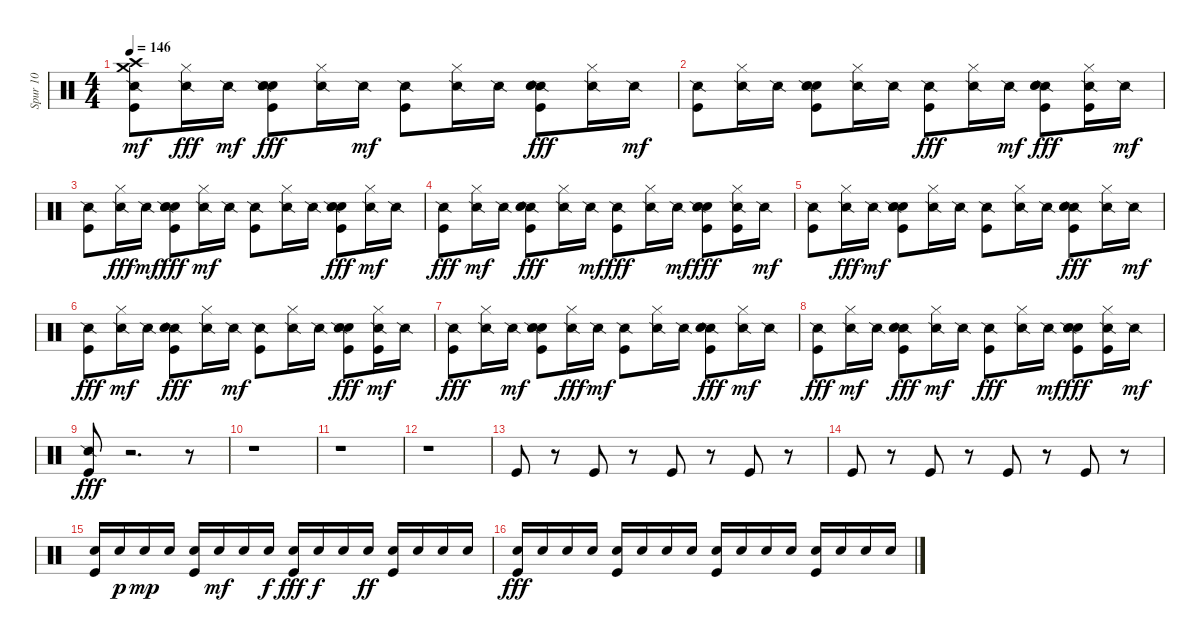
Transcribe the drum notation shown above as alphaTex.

\track ("Spur 10" "Spur 10") {instrument percussion}
\staff {score}
\articulation defaults
\ts (4 4)
\tempo 146
\clef neutral
\ks c
("Kick (hit)" "Crash medium (hit)" "Snare (side stick) 2" "Crash high (hit)").8{dy mf} ("Snare (side stick) 2" "Hi-Hat (closed)").16{dy fff} "Snare (side stick) 2".16{dy mf} ("Electric Snare (hit)" "Hand Clap (hit)" "Snare (side stick) 2" "Kick (hit)").8{dy fff} ("Snare (side stick) 2" "Hi-Hat (closed)").16 "Snare (side stick) 2".16{dy mf} ("Kick (hit)" "Snare (side stick) 2").8 ("Hi-Hat (closed)" "Snare (side stick) 2").16 "Snare (side stick) 2".16 ("Snare (side stick) 2" "Hand Clap (hit)" "Kick (hit)" "Electric Snare (hit)").8{dy fff} ("Snare (side stick) 2" "Hi-Hat (closed)").16 "Snare (side stick) 2".16{dy mf} |
("Kick (hit)" "Snare (side stick) 2").8 ("Hi-Hat (closed)" "Snare (side stick) 2").16 "Snare (side stick) 2".16 ("Hand Clap (hit)" "Electric Snare (hit)" "Kick (hit)" "Snare (side stick) 2").8 ("Hi-Hat (closed)" "Snare (side stick) 2").16 "Snare (side stick) 2".16 ("Snare (side stick) 2" "Kick (hit)").8{dy fff} ("Snare (side stick) 2" "Hi-Hat (closed)").16 "Snare (side stick) 2".16{dy mf} ("Snare (side stick) 2" "Hand Clap (hit)" "Electric Snare (hit)" "Kick (hit)").8{dy fff} ("Kick (hit)" "Snare (side stick) 2" "Hi-Hat (closed)").16 "Snare (side stick) 2".16{dy mf} |
("Kick (hit)" "Snare (side stick) 2").8 ("Snare (side stick) 2" "Hi-Hat (closed)").16{dy fff} "Snare (side stick) 2".16{dy mf} ("Electric Snare (hit)" "Snare (side stick) 2" "Kick (hit)" "Hand Clap (hit)").8{dy fff} ("Hi-Hat (closed)" "Snare (side stick) 2").16{dy mf} "Snare (side stick) 2".16 ("Kick (hit)" "Snare (side stick) 2").8 ("Hi-Hat (closed)" "Snare (side stick) 2").16 "Snare (side stick) 2".16 ("Electric Snare (hit)" "Snare (side stick) 2" "Kick (hit)" "Hand Clap (hit)").8{dy fff} ("Hi-Hat (closed)" "Snare (side stick) 2").16{dy mf} "Snare (side stick) 2".16 |
("Snare (side stick) 2" "Kick (hit)").8{dy fff} ("Hi-Hat (closed)" "Snare (side stick) 2").16{dy mf} "Snare (side stick) 2".16 ("Snare (side stick) 2" "Hand Clap (hit)" "Electric Snare (hit)" "Kick (hit)").8{dy fff} ("Snare (side stick) 2" "Hi-Hat (closed)").16 "Snare (side stick) 2".16{dy mf} ("Snare (side stick) 2" "Kick (hit)").8{dy fff} ("Snare (side stick) 2" "Hi-Hat (closed)").16 "Snare (side stick) 2".16{dy mf} ("Hand Clap (hit)" "Electric Snare (hit)" "Snare (side stick) 2" "Kick (hit)").8{dy fff} ("Snare (side stick) 2" "Kick (hit)" "Hi-Hat (closed)").16 "Snare (side stick) 2".16{dy mf} |
("Kick (hit)" "Snare (side stick) 2").8 ("Snare (side stick) 2" "Hi-Hat (closed)").16{dy fff} "Snare (side stick) 2".16{dy mf} ("Hand Clap (hit)" "Electric Snare (hit)" "Kick (hit)" "Snare (side stick) 2").8 ("Hi-Hat (closed)" "Snare (side stick) 2").16 "Snare (side stick) 2".16 ("Kick (hit)" "Snare (side stick) 2").8 ("Hi-Hat (closed)" "Snare (side stick) 2").16 "Snare (side stick) 2".16 ("Snare (side stick) 2" "Hand Clap (hit)" "Kick (hit)" "Electric Snare (hit)").8{dy fff} ("Snare (side stick) 2" "Hi-Hat (closed)").16 "Snare (side stick) 2".16{dy mf} |
("Snare (side stick) 2" "Kick (hit)").8{dy fff} ("Hi-Hat (closed)" "Snare (side stick) 2").16{dy mf} "Snare (side stick) 2".16 ("Snare (side stick) 2" "Electric Snare (hit)" "Hand Clap (hit)" "Kick (hit)").8{dy fff} ("Snare (side stick) 2" "Hi-Hat (closed)").16 "Snare (side stick) 2".16{dy mf} ("Kick (hit)" "Snare (side stick) 2").8 ("Hi-Hat (closed)" "Snare (side stick) 2").16 "Snare (side stick) 2".16 ("Electric Snare (hit)" "Snare (side stick) 2" "Kick (hit)" "Hand Clap (hit)").8{dy fff} ("Kick (hit)" "Hi-Hat (closed)" "Snare (side stick) 2").16{dy mf} "Snare (side stick) 2".16 |
("Snare (side stick) 2" "Kick (hit)").8{dy fff} ("Snare (side stick) 2" "Hi-Hat (closed)").16 "Snare (side stick) 2".16{dy mf} ("Kick (hit)" "Hand Clap (hit)" "Snare (side stick) 2" "Electric Snare (hit)").8 ("Snare (side stick) 2" "Hi-Hat (closed)").16{dy fff} "Snare (side stick) 2".16{dy mf} ("Kick (hit)" "Snare (side stick) 2").8 ("Hi-Hat (closed)" "Snare (side stick) 2").16 "Snare (side stick) 2".16 ("Snare (side stick) 2" "Kick (hit)" "Electric Snare (hit)" "Hand Clap (hit)").8{dy fff} ("Hi-Hat (closed)" "Snare (side stick) 2").16{dy mf} "Snare (side stick) 2".16 |
("Snare (side stick) 2" "Kick (hit)").8{dy fff} ("Hi-Hat (closed)" "Snare (side stick) 2").16{dy mf} "Snare (side stick) 2".16 ("Snare (side stick) 2" "Kick (hit)" "Electric Snare (hit)" "Hand Clap (hit)").8{dy fff} ("Hi-Hat (closed)" "Snare (side stick) 2").16{dy mf} "Snare (side stick) 2".16 ("Snare (side stick) 2" "Kick (hit)").8{dy fff} ("Snare (side stick) 2" "Hi-Hat (closed)").16 "Snare (side stick) 2".16{dy mf} ("Hand Clap (hit)" "Snare (side stick) 2" "Kick (hit)" "Electric Snare (hit)").8{dy fff} ("Kick (hit)" "Snare (side stick) 2" "Hi-Hat (closed)").16 "Snare (side stick) 2".16{dy mf} |
("Snare (side stick) 2" "Kick (hit)").8{dy fff} r.2{d} r.8 |
r.1 |
r.1 |
r.1 |
"Kick (hit)".8 r.8 "Kick (hit)".8 r.8 "Kick (hit)".8 r.8 "Kick (hit)".8 r.8 |
"Kick (hit)".8 r.8 "Kick (hit)".8 r.8 "Kick (hit)".8 r.8 "Kick (hit)".8 r.8 |
("Snare (hit) 2" "Kick (hit)").16 "Snare (hit) 2".16{dy p} "Snare (hit) 2".16{dy mp} "Snare (hit) 2".16 ("Kick (hit)" "Snare (hit) 2").16 "Snare (hit) 2".16{dy mf} "Snare (hit) 2".16 "Snare (hit) 2".16{dy f} ("Snare (hit) 2" "Kick (hit)").16{dy fff} "Snare (hit) 2".16{dy f} "Snare (hit) 2".16 "Snare (hit) 2".16{dy ff} ("Kick (hit)" "Snare (hit) 2").16 "Snare (hit) 2".16 "Snare (hit) 2".16 "Snare (hit) 2".16 |
("Snare (hit) 2" "Kick (hit)").16{dy fff} "Snare (hit) 2".16 "Snare (hit) 2".16 "Snare (hit) 2".16 ("Kick (hit)" "Snare (hit) 2").16 "Snare (hit) 2".16 "Snare (hit) 2".16 "Snare (hit) 2".16 ("Snare (hit) 2" "Kick (hit)").16 "Snare (hit) 2".16 "Snare (hit) 2".16 "Snare (hit) 2".16 ("Snare (hit) 2" "Kick (hit)").16 "Snare (hit) 2".16 "Snare (hit) 2".16 "Snare (hit) 2".16
